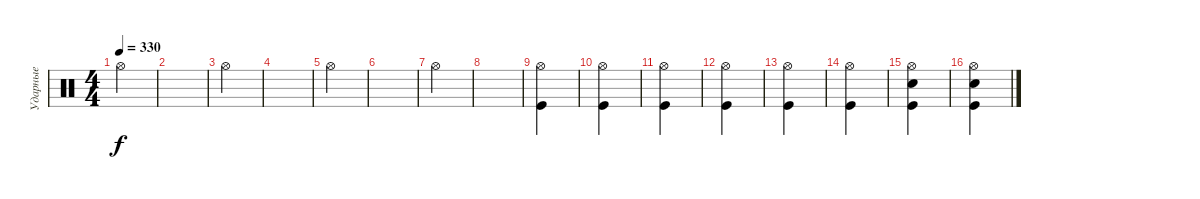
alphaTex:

\track ("Ударные" "Ударные") {instrument percussion}
\staff {score}
\articulation defaults
\ts (4 4)
\tempo 330
\clef neutral
\ks c "Hi-Hat (open)".4{dy f}
|
|
"Hi-Hat (open)".4 |
|
"Hi-Hat (open)".4 |
|
"Hi-Hat (open)".4 |
|
("Hi-Hat (open)" "Kick (hit)").4 |
("Hi-Hat (open)" "Kick (hit)").4 |
("Hi-Hat (open)" "Kick (hit)").4 |
("Hi-Hat (open)" "Kick (hit)").4 |
("Hi-Hat (open)" "Kick (hit)").4 |
("Hi-Hat (open)" "Kick (hit)").4 |
("Hi-Hat (open)" "Kick (hit)" "Snare (hit) 2").4 |
("Hi-Hat (open)" "Kick (hit)" "Snare (hit) 2").4
